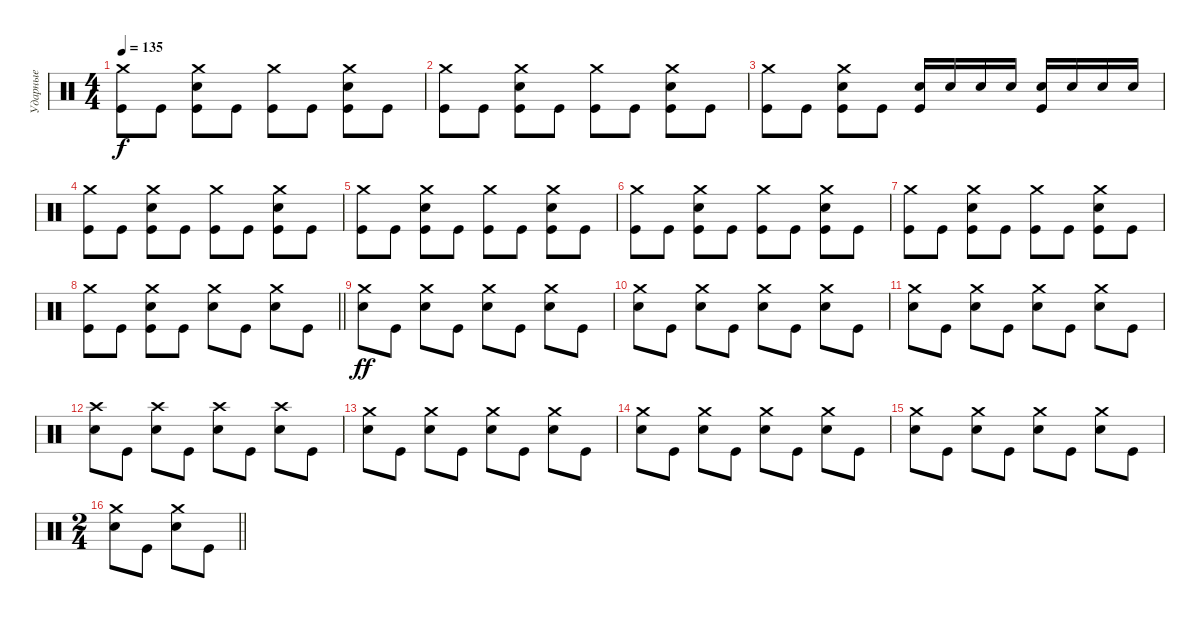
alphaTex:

\track ("Ударные" "Ударные") {instrument percussion}
\staff {score}
\articulation defaults
\ts (4 4)
\tempo 135
\clef neutral
\ks c
("Crash medium (hit)" "Kick (hit)").8{dy f} "Kick (hit)".8 ("Crash medium (hit)" "Electric Snare (hit)" "Kick (hit)").8 "Kick (hit)".8 ("Crash medium (hit)" "Kick (hit)").8 "Kick (hit)".8 ("Crash medium (hit)" "Electric Snare (hit)" "Kick (hit)").8 "Kick (hit)".8 |
("Crash medium (hit)" "Kick (hit)").8 "Kick (hit)".8 ("Crash medium (hit)" "Electric Snare (hit)" "Kick (hit)").8 "Kick (hit)".8 ("Crash medium (hit)" "Kick (hit)").8 "Kick (hit)".8 ("Crash medium (hit)" "Electric Snare (hit)" "Kick (hit)").8 "Kick (hit)".8 |
("Crash medium (hit)" "Kick (hit)").8 "Kick (hit)".8 ("Crash medium (hit)" "Electric Snare (hit)" "Kick (hit)").8 "Kick (hit)".8 ("Electric Snare (hit)" "Kick (hit)").16 "Electric Snare (hit)".16 "Electric Snare (hit)".16 "Electric Snare (hit)".16 ("Electric Snare (hit)" "Kick (hit)").16 "Electric Snare (hit)".16 "Electric Snare (hit)".16 "Electric Snare (hit)".16 |
("Crash medium (hit)" "Kick (hit)").8 "Kick (hit)".8 ("Crash medium (hit)" "Electric Snare (hit)" "Kick (hit)").8 "Kick (hit)".8 ("Crash medium (hit)" "Kick (hit)").8 "Kick (hit)".8 ("Crash medium (hit)" "Electric Snare (hit)" "Kick (hit)").8 "Kick (hit)".8 |
("Crash medium (hit)" "Kick (hit)").8 "Kick (hit)".8 ("Crash medium (hit)" "Electric Snare (hit)" "Kick (hit)").8 "Kick (hit)".8 ("Crash medium (hit)" "Kick (hit)").8 "Kick (hit)".8 ("Crash medium (hit)" "Electric Snare (hit)" "Kick (hit)").8 "Kick (hit)".8 |
("Crash medium (hit)" "Kick (hit)").8 "Kick (hit)".8 ("Crash medium (hit)" "Electric Snare (hit)" "Kick (hit)").8 "Kick (hit)".8 ("Crash medium (hit)" "Kick (hit)").8 "Kick (hit)".8 ("Crash medium (hit)" "Electric Snare (hit)" "Kick (hit)").8 "Kick (hit)".8 |
("Crash medium (hit)" "Kick (hit)").8 "Kick (hit)".8 ("Crash medium (hit)" "Electric Snare (hit)" "Kick (hit)").8 "Kick (hit)".8 ("Crash medium (hit)" "Kick (hit)").8 "Kick (hit)".8 ("Crash medium (hit)" "Electric Snare (hit)" "Kick (hit)").8 "Kick (hit)".8 |
\barLineRight lightlight
("Crash medium (hit)" "Kick (hit)").8 "Kick (hit)".8 ("Crash medium (hit)" "Electric Snare (hit)" "Kick (hit)").8 "Kick (hit)".8 ("Crash medium (hit)" "Electric Snare (hit)").8 "Kick (hit)".8 ("Crash medium (hit)" "Electric Snare (hit)").8 "Kick (hit)".8 |
\section ("" " ")
("Crash medium (hit)" "Electric Snare (hit)").8{dy ff} "Kick (hit)".8 ("Crash medium (hit)" "Electric Snare (hit)").8 "Kick (hit)".8 ("Crash medium (hit)" "Electric Snare (hit)").8 "Kick (hit)".8 ("Crash medium (hit)" "Electric Snare (hit)").8 "Kick (hit)".8 |
("Crash medium (hit)" "Electric Snare (hit)").8 "Kick (hit)".8 ("Crash medium (hit)" "Electric Snare (hit)").8 "Kick (hit)".8 ("Crash medium (hit)" "Electric Snare (hit)").8 "Kick (hit)".8 ("Crash medium (hit)" "Electric Snare (hit)").8 "Kick (hit)".8 |
("Crash medium (hit)" "Electric Snare (hit)").8 "Kick (hit)".8 ("Crash medium (hit)" "Electric Snare (hit)").8 "Kick (hit)".8 ("Crash medium (hit)" "Electric Snare (hit)").8 "Kick (hit)".8 ("Crash medium (hit)" "Electric Snare (hit)").8 "Kick (hit)".8 |
("Crash high (hit)" "Electric Snare (hit)").8 "Kick (hit)".8 ("Crash high (hit)" "Electric Snare (hit)").8 "Kick (hit)".8 ("Crash high (hit)" "Electric Snare (hit)").8 "Kick (hit)".8 ("Crash high (hit)" "Electric Snare (hit)").8 "Kick (hit)".8 |
("Crash medium (hit)" "Electric Snare (hit)").8 "Kick (hit)".8 ("Crash medium (hit)" "Electric Snare (hit)").8 "Kick (hit)".8 ("Crash medium (hit)" "Electric Snare (hit)").8 "Kick (hit)".8 ("Crash medium (hit)" "Electric Snare (hit)").8 "Kick (hit)".8 |
("Crash medium (hit)" "Electric Snare (hit)").8 "Kick (hit)".8 ("Crash medium (hit)" "Electric Snare (hit)").8 "Kick (hit)".8 ("Crash medium (hit)" "Electric Snare (hit)").8 "Kick (hit)".8 ("Crash medium (hit)" "Electric Snare (hit)").8 "Kick (hit)".8 |
("Crash medium (hit)" "Electric Snare (hit)").8 "Kick (hit)".8 ("Crash medium (hit)" "Electric Snare (hit)").8 "Kick (hit)".8 ("Crash medium (hit)" "Electric Snare (hit)").8 "Kick (hit)".8 ("Crash medium (hit)" "Electric Snare (hit)").8 "Kick (hit)".8 |
\ts (2 4)
\barLineRight lightlight
("Crash medium (hit)" "Electric Snare (hit)").8 "Kick (hit)".8 ("Crash medium (hit)" "Electric Snare (hit)").8 "Kick (hit)".8
